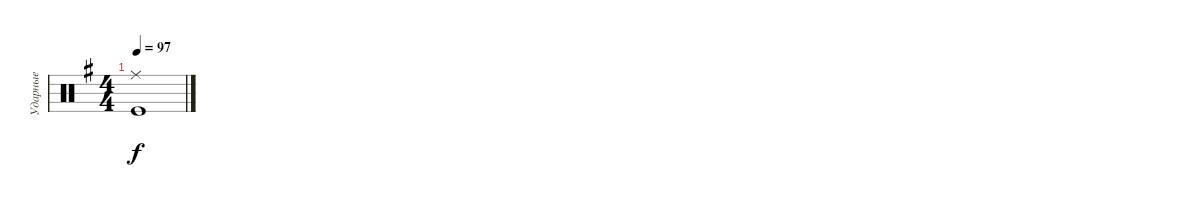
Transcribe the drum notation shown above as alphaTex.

\track ("Ударные" "Ударные") {instrument percussion}
\staff {score}
\articulation defaults
\ts (4 4)
\tempo 97
\clef neutral
\ks eminor
("Kick (hit)" "Ride (middle)").1{dy f}
